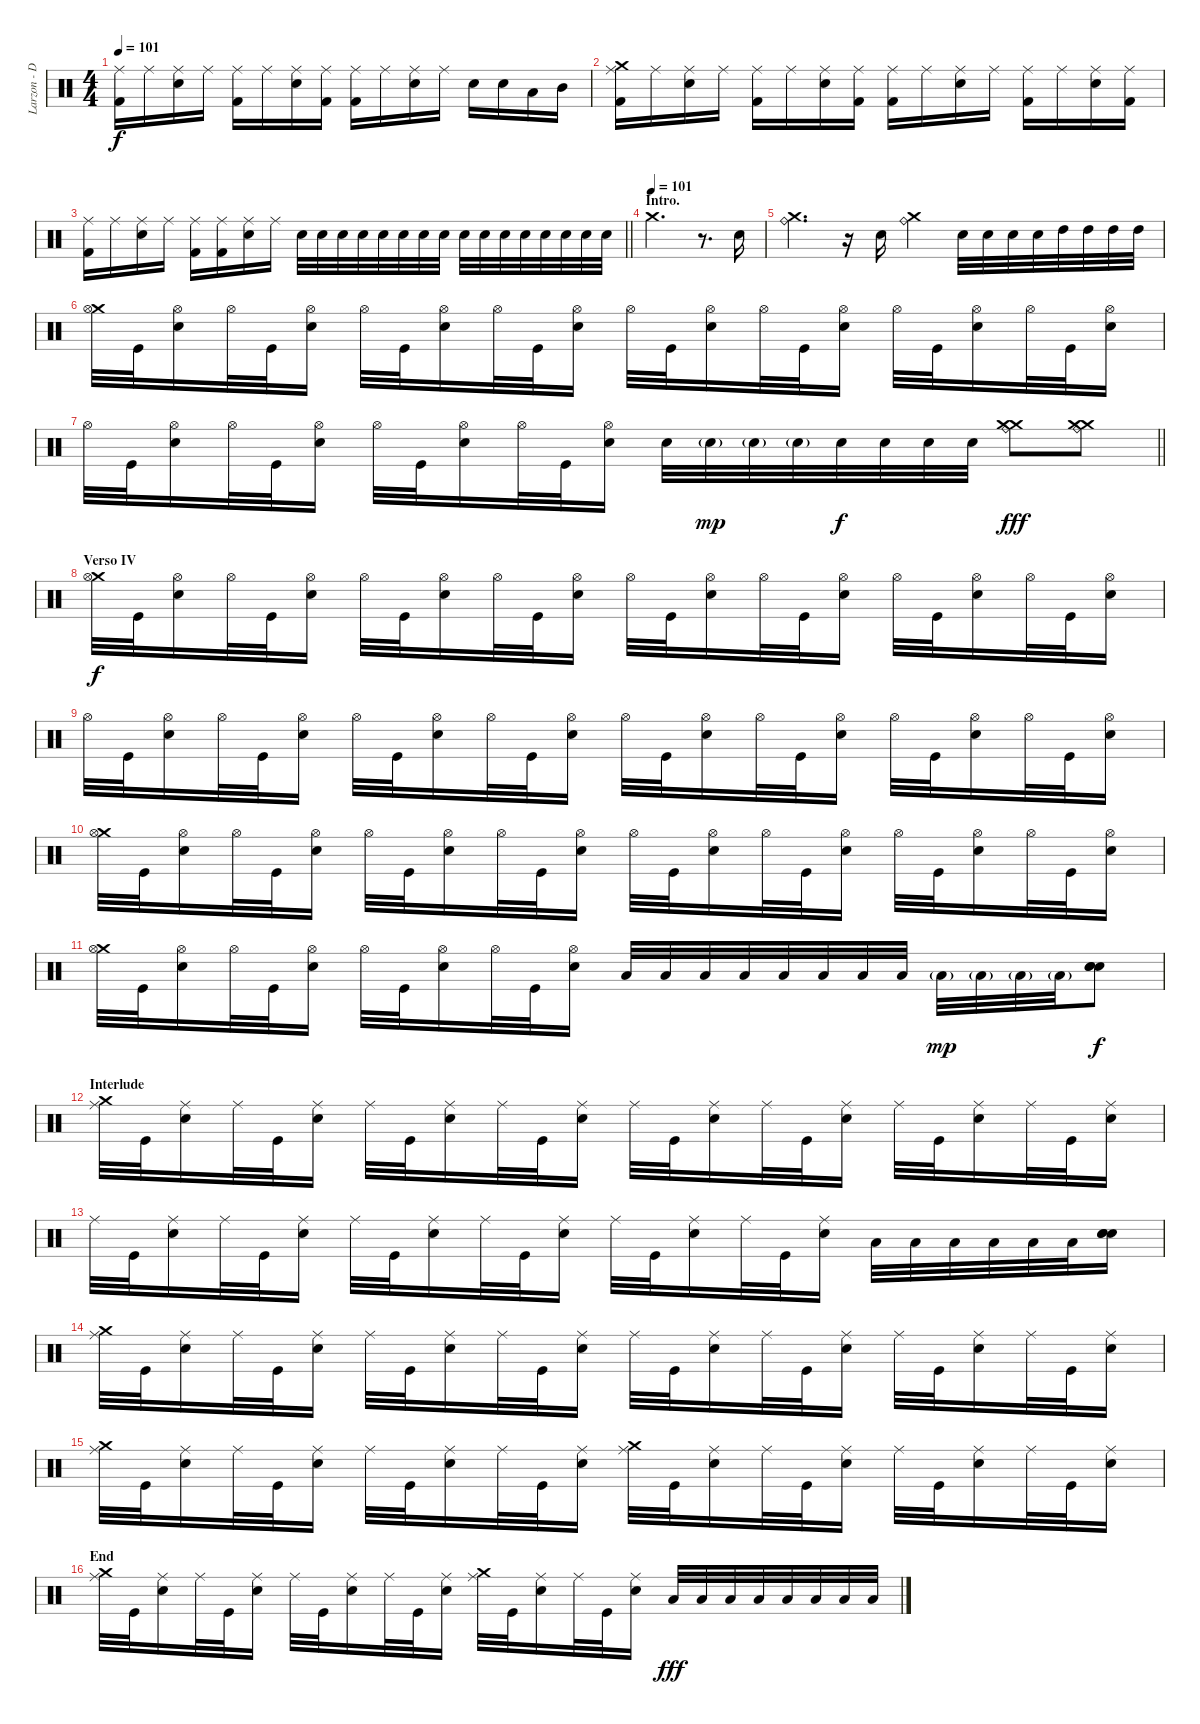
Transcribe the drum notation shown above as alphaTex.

\track ("Larzon - Drums" "Larzon - D") {instrument percussion}
\staff {score}
\articulation defaults
\ts (4 4)
\tempo 101
\clef neutral
\ks c
("Kick (hit) 2" "Ride (middle)").16{dy f} "Ride (middle)".16 ("Electric Snare (hit)" "Ride (middle)").16 "Ride (middle)".16 ("Kick (hit) 2" "Ride (middle)").16 "Ride (middle)".16 ("Electric Snare (hit)" "Ride (middle)").16 ("Kick (hit) 2" "Ride (middle)").16 ("Kick (hit) 2" "Ride (middle)").16 "Ride (middle)".16 ("Electric Snare (hit)" "Ride (middle)").16 "Ride (middle)".16 "Electric Snare (hit)".16 "Electric Snare (hit)".16 "Low Tom (hit)".16 "Mid Tom (hit)".16 |
("Kick (hit) 2" "Crash medium (hit)" "Ride (middle)").16 "Ride (middle)".16 ("Electric Snare (hit)" "Ride (middle)").16 "Ride (middle)".16 ("Kick (hit) 2" "Ride (middle)").16 "Ride (middle)".16 ("Electric Snare (hit)" "Ride (middle)").16 ("Kick (hit) 2" "Ride (middle)").16 ("Kick (hit) 2" "Ride (middle)").16 "Ride (middle)".16 ("Electric Snare (hit)" "Ride (middle)").16 "Ride (middle)".16 ("Kick (hit) 2" "Ride (middle)").16 "Ride (middle)".16 ("Electric Snare (hit)" "Ride (middle)").16 ("Kick (hit) 2" "Ride (middle)").16 |
\barLineRight lightlight
("Kick (hit) 2" "Ride (middle)").16 "Ride (middle)".16 ("Electric Snare (hit)" "Ride (middle)").16 "Ride (middle)".16 ("Kick (hit) 2" "Ride (middle)").16 ("Kick (hit) 2" "Ride (middle)").16 ("Electric Snare (hit)" "Ride (middle)").16 "Ride (middle)".16 "Electric Snare (hit)".32 "Electric Snare (hit)".32 "Electric Snare (hit)".32 "Electric Snare (hit)".32 "Electric Snare (hit)".32 "Electric Snare (hit)".32 "Electric Snare (hit)".32 "Electric Snare (hit)".32 "Electric Snare (hit)".32 "Electric Snare (hit)".32 "Electric Snare (hit)".32 "Electric Snare (hit)".32 "Electric Snare (hit)".32 "Electric Snare (hit)".32 "Electric Snare (hit)".32 "Electric Snare (hit)".32 |
\section ("" "Intro.")
\tempo (101)
"Crash medium (hit)".2{d} r.8{d} "Electric Snare (hit)".16 |
("Crash medium (hit)" "Ride (bell)").4{d} r.16 "Electric Snare (hit)".16 ("Crash medium (hit)" "Ride (bell)").4 "Electric Snare (hit)".32 "Electric Snare (hit)".32 "Electric Snare (hit)".32 "Electric Snare (hit)".32 "High Tom (hit)".32 "High Tom (hit)".32 "High Tom (hit)".32 "High Tom (hit)".32 |
("Crash medium (hit)" "Hi-Hat (open)").32 "Kick (hit)".32 ("Electric Snare (hit)" "Hi-Hat (open)").16 "Hi-Hat (open)".32 "Kick (hit)".32 ("Electric Snare (hit)" "Hi-Hat (open)").16 "Hi-Hat (open)".32 "Kick (hit)".32 ("Electric Snare (hit)" "Hi-Hat (open)").16 "Hi-Hat (open)".32 "Kick (hit)".32 ("Electric Snare (hit)" "Hi-Hat (open)").16 "Hi-Hat (open)".32 "Kick (hit)".32 ("Electric Snare (hit)" "Hi-Hat (open)").16 "Hi-Hat (open)".32 "Kick (hit)".32 ("Electric Snare (hit)" "Hi-Hat (open)").16 "Hi-Hat (open)".32 "Kick (hit)".32 ("Electric Snare (hit)" "Hi-Hat (open)").16 "Hi-Hat (open)".32 "Kick (hit)".32 ("Electric Snare (hit)" "Hi-Hat (open)").16 |
\barLineRight lightlight "Hi-Hat (open)".32 "Kick (hit)".32
("Electric Snare (hit)" "Hi-Hat (open)").16 "Hi-Hat (open)".32 "Kick (hit)".32 ("Electric Snare (hit)" "Hi-Hat (open)").16 "Hi-Hat (open)".32 "Kick (hit)".32 ("Electric Snare (hit)" "Hi-Hat (open)").16 "Hi-Hat (open)".32 "Kick (hit)".32 ("Electric Snare (hit)" "Hi-Hat (open)").16 "Electric Snare (hit)".32 "Electric Snare (hit)"{g}.32{dy mp} "Electric Snare (hit)"{g}.32 "Electric Snare (hit)"{g}.32 "Electric Snare (hit)".32{dy f} "Electric Snare (hit)".32 "Electric Snare (hit)".32 "Electric Snare (hit)".32 ("Ride (bell)" "Crash medium (hit)" "Crash medium (hit)").8{dy fff} ("Ride (bell)" "Crash medium (hit)" "Crash medium (hit)").8 |
\section ("" "Verso IV")
("Crash medium (hit)" "Hi-Hat (open)").32{dy f} "Kick (hit)".32 ("Electric Snare (hit)" "Hi-Hat (open)").16 "Hi-Hat (open)".32 "Kick (hit)".32 ("Electric Snare (hit)" "Hi-Hat (open)").16 "Hi-Hat (open)".32 "Kick (hit)".32 ("Electric Snare (hit)" "Hi-Hat (open)").16 "Hi-Hat (open)".32 "Kick (hit)".32 ("Electric Snare (hit)" "Hi-Hat (open)").16 "Hi-Hat (open)".32 "Kick (hit)".32 ("Electric Snare (hit)" "Hi-Hat (open)").16 "Hi-Hat (open)".32 "Kick (hit)".32 ("Electric Snare (hit)" "Hi-Hat (open)").16 "Hi-Hat (open)".32 "Kick (hit)".32 ("Electric Snare (hit)" "Hi-Hat (open)").16 "Hi-Hat (open)".32 "Kick (hit)".32 ("Electric Snare (hit)" "Hi-Hat (open)").16 |
"Hi-Hat (open)".32 "Kick (hit)".32 ("Electric Snare (hit)" "Hi-Hat (open)").16 "Hi-Hat (open)".32 "Kick (hit)".32 ("Electric Snare (hit)" "Hi-Hat (open)").16 "Hi-Hat (open)".32 "Kick (hit)".32 ("Electric Snare (hit)" "Hi-Hat (open)").16 "Hi-Hat (open)".32 "Kick (hit)".32 ("Electric Snare (hit)" "Hi-Hat (open)").16 "Hi-Hat (open)".32 "Kick (hit)".32 ("Electric Snare (hit)" "Hi-Hat (open)").16 "Hi-Hat (open)".32 "Kick (hit)".32 ("Electric Snare (hit)" "Hi-Hat (open)").16 "Hi-Hat (open)".32 "Kick (hit)".32 ("Electric Snare (hit)" "Hi-Hat (open)").16 "Hi-Hat (open)".32 "Kick (hit)".32 ("Electric Snare (hit)" "Hi-Hat (open)").16 |
("Crash medium (hit)" "Hi-Hat (open)").32 "Kick (hit)".32 ("Electric Snare (hit)" "Hi-Hat (open)").16 "Hi-Hat (open)".32 "Kick (hit)".32 ("Electric Snare (hit)" "Hi-Hat (open)").16 "Hi-Hat (open)".32 "Kick (hit)".32 ("Electric Snare (hit)" "Hi-Hat (open)").16 "Hi-Hat (open)".32 "Kick (hit)".32 ("Electric Snare (hit)" "Hi-Hat (open)").16 "Hi-Hat (open)".32 "Kick (hit)".32 ("Electric Snare (hit)" "Hi-Hat (open)").16 "Hi-Hat (open)".32 "Kick (hit)".32 ("Electric Snare (hit)" "Hi-Hat (open)").16 "Hi-Hat (open)".32 "Kick (hit)".32 ("Electric Snare (hit)" "Hi-Hat (open)").16 "Hi-Hat (open)".32 "Kick (hit)".32 ("Electric Snare (hit)" "Hi-Hat (open)").16 |
("Crash medium (hit)" "Hi-Hat (open)").32 "Kick (hit)".32 ("Electric Snare (hit)" "Hi-Hat (open)").16 "Hi-Hat (open)".32 "Kick (hit)".32 ("Electric Snare (hit)" "Hi-Hat (open)").16 "Hi-Hat (open)".32 "Kick (hit)".32 ("Electric Snare (hit)" "Hi-Hat (open)").16 "Hi-Hat (open)".32 "Kick (hit)".32 ("Electric Snare (hit)" "Hi-Hat (open)").16 "Low Tom (hit)".32 "Low Tom (hit)".32 "Low Tom (hit)".32 "Low Tom (hit)".32 "Low Tom (hit)".32 "Low Tom (hit)".32 "Low Tom (hit)".32 "Low Tom (hit)".32 "Low Tom (hit)"{g}.32{dy mp} "Low Tom (hit)"{g}.32 "Low Tom (hit)"{g}.32 "Low Tom (hit)"{g}.32 ("Electric Snare (hit)" "Electric Snare (hit)" "Electric Snare (hit)").8{dy f} |
\section ("" "Interlude")
("Crash medium (hit)" "Ride (middle)").32 "Kick (hit)".32 ("Electric Snare (hit)" "Ride (middle)").16 "Ride (middle)".32 "Kick (hit)".32 ("Electric Snare (hit)" "Ride (middle)").16 "Ride (middle)".32 "Kick (hit)".32 ("Electric Snare (hit)" "Ride (middle)").16 "Ride (middle)".32 "Kick (hit)".32 ("Electric Snare (hit)" "Ride (middle)").16 "Ride (middle)".32 "Kick (hit)".32 ("Electric Snare (hit)" "Ride (middle)").16 "Ride (middle)".32 "Kick (hit)".32 ("Electric Snare (hit)" "Ride (middle)").16 "Ride (middle)".32 "Kick (hit)".32 ("Electric Snare (hit)" "Ride (middle)").16 "Ride (middle)".32 "Kick (hit)".32 ("Electric Snare (hit)" "Ride (middle)").16 |
"Ride (middle)".32 "Kick (hit)".32 ("Electric Snare (hit)" "Ride (middle)").16 "Ride (middle)".32 "Kick (hit)".32 ("Electric Snare (hit)" "Ride (middle)").16 "Ride (middle)".32 "Kick (hit)".32 ("Electric Snare (hit)" "Ride (middle)").16 "Ride (middle)".32 "Kick (hit)".32 ("Electric Snare (hit)" "Ride (middle)").16 "Ride (middle)".32 "Kick (hit)".32 ("Electric Snare (hit)" "Ride (middle)").16 "Ride (middle)".32 "Kick (hit)".32 ("Electric Snare (hit)" "Ride (middle)").16 "Low Tom (hit)".32 "Low Tom (hit)".32 "Low Tom (hit)".32 "Low Tom (hit)".32 "Low Tom (hit)".32 "Low Tom (hit)".32 ("Electric Snare (hit)" "Electric Snare (hit)" "Electric Snare (hit)").16 |
("Crash medium (hit)" "Ride (middle)").32 "Kick (hit)".32 ("Electric Snare (hit)" "Ride (middle)").16 "Ride (middle)".32 "Kick (hit)".32 ("Electric Snare (hit)" "Ride (middle)").16 "Ride (middle)".32 "Kick (hit)".32 ("Electric Snare (hit)" "Ride (middle)").16 "Ride (middle)".32 "Kick (hit)".32 ("Electric Snare (hit)" "Ride (middle)").16 "Ride (middle)".32 "Kick (hit)".32 ("Electric Snare (hit)" "Ride (middle)").16 "Ride (middle)".32 "Kick (hit)".32 ("Electric Snare (hit)" "Ride (middle)").16 "Ride (middle)".32 "Kick (hit)".32 ("Electric Snare (hit)" "Ride (middle)").16 "Ride (middle)".32 "Kick (hit)".32 ("Electric Snare (hit)" "Ride (middle)").16 |
("Crash medium (hit)" "Ride (middle)").32 "Kick (hit)".32 ("Electric Snare (hit)" "Ride (middle)").16 "Ride (middle)".32 "Kick (hit)".32 ("Electric Snare (hit)" "Ride (middle)").16 "Ride (middle)".32 "Kick (hit)".32 ("Electric Snare (hit)" "Ride (middle)").16 "Ride (middle)".32 "Kick (hit)".32 ("Electric Snare (hit)" "Ride (middle)").16 ("Crash medium (hit)" "Ride (middle)").32 "Kick (hit)".32 ("Electric Snare (hit)" "Ride (middle)").16 "Ride (middle)".32 "Kick (hit)".32 ("Electric Snare (hit)" "Ride (middle)").16 "Ride (middle)".32 "Kick (hit)".32 ("Electric Snare (hit)" "Ride (middle)").16 "Ride (middle)".32 "Kick (hit)".32 ("Electric Snare (hit)" "Ride (middle)").16 |
\section ("" "End")
("Crash medium (hit)" "Ride (middle)").32 "Kick (hit)".32 ("Electric Snare (hit)" "Ride (middle)").16 "Ride (middle)".32 "Kick (hit)".32 ("Electric Snare (hit)" "Ride (middle)").16 "Ride (middle)".32 "Kick (hit)".32 ("Electric Snare (hit)" "Ride (middle)").16 "Ride (middle)".32 "Kick (hit)".32 ("Electric Snare (hit)" "Ride (middle)").16 ("Crash medium (hit)" "Ride (middle)").32 "Kick (hit)".32 ("Electric Snare (hit)" "Ride (middle)").16 "Ride (middle)".32 "Kick (hit)".32 ("Electric Snare (hit)" "Ride (middle)").16 "Low Tom (hit)".32{dy fff} "Low Tom (hit)".32 "Low Tom (hit)".32 "Low Tom (hit)".32 "Low Tom (hit)".32 "Low Tom (hit)".32 "Low Tom (hit)".32 "Low Tom (hit)".32
